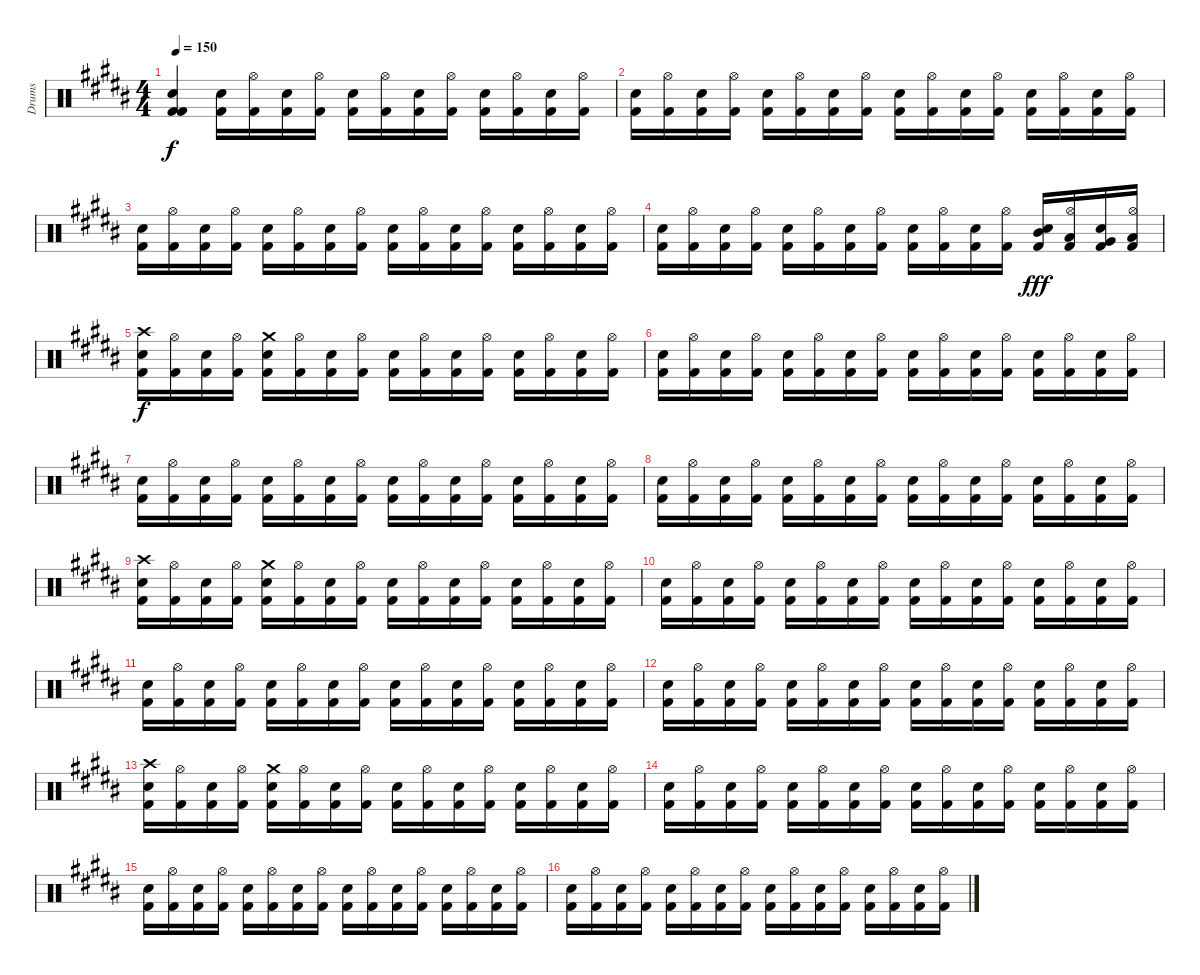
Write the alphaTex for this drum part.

\track ("Drums" "Drums") {instrument percussion}
\staff {score}
\articulation defaults
\ts (4 4)
\tempo 150
\clef neutral
\ks b
("Kick (hit) 2" "Snare (hit) 2" "Kick (hit) 2").4{dy f} ("Snare (hit) 2" "Kick (hit) 2").16 ("Hi-Hat (open)" "Kick (hit) 2").16 ("Snare (hit) 2" "Kick (hit) 2").16 ("Hi-Hat (open)" "Kick (hit) 2").16 ("Snare (hit) 2" "Kick (hit) 2").16 ("Hi-Hat (open)" "Kick (hit) 2").16 ("Snare (hit) 2" "Kick (hit) 2").16 ("Hi-Hat (open)" "Kick (hit) 2").16 ("Snare (hit) 2" "Kick (hit) 2").16 ("Hi-Hat (open)" "Kick (hit) 2").16 ("Snare (hit) 2" "Kick (hit) 2").16 ("Hi-Hat (open)" "Kick (hit) 2").16 |
("Snare (hit) 2" "Kick (hit) 2").16 ("Hi-Hat (open)" "Kick (hit) 2").16 ("Snare (hit) 2" "Kick (hit) 2").16 ("Hi-Hat (open)" "Kick (hit) 2").16 ("Snare (hit) 2" "Kick (hit) 2").16 ("Hi-Hat (open)" "Kick (hit) 2").16 ("Snare (hit) 2" "Kick (hit) 2").16 ("Hi-Hat (open)" "Kick (hit) 2").16 ("Snare (hit) 2" "Kick (hit) 2").16 ("Hi-Hat (open)" "Kick (hit) 2").16 ("Snare (hit) 2" "Kick (hit) 2").16 ("Hi-Hat (open)" "Kick (hit) 2").16 ("Snare (hit) 2" "Kick (hit) 2").16 ("Hi-Hat (open)" "Kick (hit) 2").16 ("Snare (hit) 2" "Kick (hit) 2").16 ("Hi-Hat (open)" "Kick (hit) 2").16 |
("Snare (hit) 2" "Kick (hit) 2").16 ("Hi-Hat (open)" "Kick (hit) 2").16 ("Snare (hit) 2" "Kick (hit) 2").16 ("Hi-Hat (open)" "Kick (hit) 2").16 ("Snare (hit) 2" "Kick (hit) 2").16 ("Hi-Hat (open)" "Kick (hit) 2").16 ("Snare (hit) 2" "Kick (hit) 2").16 ("Hi-Hat (open)" "Kick (hit) 2").16 ("Snare (hit) 2" "Kick (hit) 2").16 ("Hi-Hat (open)" "Kick (hit) 2").16 ("Snare (hit) 2" "Kick (hit) 2").16 ("Hi-Hat (open)" "Kick (hit) 2").16 ("Snare (hit) 2" "Kick (hit) 2").16 ("Hi-Hat (open)" "Kick (hit) 2").16 ("Snare (hit) 2" "Kick (hit) 2").16 ("Hi-Hat (open)" "Kick (hit) 2").16 |
("Snare (hit) 2" "Kick (hit) 2").16 ("Hi-Hat (open)" "Kick (hit) 2").16 ("Snare (hit) 2" "Kick (hit) 2").16 ("Hi-Hat (open)" "Kick (hit) 2").16 ("Snare (hit) 2" "Kick (hit) 2").16 ("Hi-Hat (open)" "Kick (hit) 2").16 ("Snare (hit) 2" "Kick (hit) 2").16 ("Hi-Hat (open)" "Kick (hit) 2").16 ("Snare (hit) 2" "Kick (hit) 2").16 ("Hi-Hat (open)" "Kick (hit) 2").16 ("Snare (hit) 2" "Kick (hit) 2").16 ("Hi-Hat (open)" "Kick (hit) 2").16 ("Mid Tom (hit)" "Snare (hit) 2" "Kick (hit) 2").16{dy fff} ("Hi-Hat (open)" "Low Tom (hit)" "Kick (hit) 2").16 ("Very Low Tom (hit)" "Snare (hit) 2" "Kick (hit) 2").16 ("Hi-Hat (open)" "Low Floor Tom (hit)" "Kick (hit) 2").16 |
("Crash high (hit)" "Snare (hit) 2" "Kick (hit) 2").16{dy f} ("Hi-Hat (open)" "Kick (hit) 2").16 ("Snare (hit) 2" "Kick (hit) 2").16 ("Hi-Hat (open)" "Kick (hit) 2").16 ("Crash medium (hit)" "Snare (hit) 2" "Kick (hit) 2").16 ("Hi-Hat (open)" "Kick (hit) 2").16 ("Snare (hit) 2" "Kick (hit) 2").16 ("Hi-Hat (open)" "Kick (hit) 2").16 ("Snare (hit) 2" "Kick (hit) 2").16 ("Hi-Hat (open)" "Kick (hit) 2").16 ("Snare (hit) 2" "Kick (hit) 2").16 ("Hi-Hat (open)" "Kick (hit) 2").16 ("Snare (hit) 2" "Kick (hit) 2").16 ("Hi-Hat (open)" "Kick (hit) 2").16 ("Snare (hit) 2" "Kick (hit) 2").16 ("Hi-Hat (open)" "Kick (hit) 2").16 |
("Snare (hit) 2" "Kick (hit) 2").16 ("Hi-Hat (open)" "Kick (hit) 2").16 ("Snare (hit) 2" "Kick (hit) 2").16 ("Hi-Hat (open)" "Kick (hit) 2").16 ("Snare (hit) 2" "Kick (hit) 2").16 ("Hi-Hat (open)" "Kick (hit) 2").16 ("Snare (hit) 2" "Kick (hit) 2").16 ("Hi-Hat (open)" "Kick (hit) 2").16 ("Snare (hit) 2" "Kick (hit) 2").16 ("Hi-Hat (open)" "Kick (hit) 2").16 ("Snare (hit) 2" "Kick (hit) 2").16 ("Hi-Hat (open)" "Kick (hit) 2").16 ("Snare (hit) 2" "Kick (hit) 2").16 ("Hi-Hat (open)" "Kick (hit) 2").16 ("Snare (hit) 2" "Kick (hit) 2").16 ("Hi-Hat (open)" "Kick (hit) 2").16 |
("Snare (hit) 2" "Kick (hit) 2").16 ("Hi-Hat (open)" "Kick (hit) 2").16 ("Snare (hit) 2" "Kick (hit) 2").16 ("Hi-Hat (open)" "Kick (hit) 2").16 ("Snare (hit) 2" "Kick (hit) 2").16 ("Hi-Hat (open)" "Kick (hit) 2").16 ("Snare (hit) 2" "Kick (hit) 2").16 ("Hi-Hat (open)" "Kick (hit) 2").16 ("Snare (hit) 2" "Kick (hit) 2").16 ("Hi-Hat (open)" "Kick (hit) 2").16 ("Snare (hit) 2" "Kick (hit) 2").16 ("Hi-Hat (open)" "Kick (hit) 2").16 ("Snare (hit) 2" "Kick (hit) 2").16 ("Hi-Hat (open)" "Kick (hit) 2").16 ("Snare (hit) 2" "Kick (hit) 2").16 ("Hi-Hat (open)" "Kick (hit) 2").16 |
("Snare (hit) 2" "Kick (hit) 2").16 ("Hi-Hat (open)" "Kick (hit) 2").16 ("Snare (hit) 2" "Kick (hit) 2").16 ("Hi-Hat (open)" "Kick (hit) 2").16 ("Snare (hit) 2" "Kick (hit) 2").16 ("Hi-Hat (open)" "Kick (hit) 2").16 ("Snare (hit) 2" "Kick (hit) 2").16 ("Hi-Hat (open)" "Kick (hit) 2").16 ("Snare (hit) 2" "Kick (hit) 2").16 ("Hi-Hat (open)" "Kick (hit) 2").16 ("Snare (hit) 2" "Kick (hit) 2").16 ("Hi-Hat (open)" "Kick (hit) 2").16 ("Snare (hit) 2" "Kick (hit) 2").16 ("Hi-Hat (open)" "Kick (hit) 2").16 ("Snare (hit) 2" "Kick (hit) 2").16 ("Hi-Hat (open)" "Kick (hit) 2").16 |
("Crash high (hit)" "Snare (hit) 2" "Kick (hit) 2").16 ("Hi-Hat (open)" "Kick (hit) 2").16 ("Snare (hit) 2" "Kick (hit) 2").16 ("Hi-Hat (open)" "Kick (hit) 2").16 ("Crash medium (hit)" "Snare (hit) 2" "Kick (hit) 2").16 ("Hi-Hat (open)" "Kick (hit) 2").16 ("Snare (hit) 2" "Kick (hit) 2").16 ("Hi-Hat (open)" "Kick (hit) 2").16 ("Snare (hit) 2" "Kick (hit) 2").16 ("Hi-Hat (open)" "Kick (hit) 2").16 ("Snare (hit) 2" "Kick (hit) 2").16 ("Hi-Hat (open)" "Kick (hit) 2").16 ("Snare (hit) 2" "Kick (hit) 2").16 ("Hi-Hat (open)" "Kick (hit) 2").16 ("Snare (hit) 2" "Kick (hit) 2").16 ("Hi-Hat (open)" "Kick (hit) 2").16 |
("Snare (hit) 2" "Kick (hit) 2").16 ("Hi-Hat (open)" "Kick (hit) 2").16 ("Snare (hit) 2" "Kick (hit) 2").16 ("Hi-Hat (open)" "Kick (hit) 2").16 ("Snare (hit) 2" "Kick (hit) 2").16 ("Hi-Hat (open)" "Kick (hit) 2").16 ("Snare (hit) 2" "Kick (hit) 2").16 ("Hi-Hat (open)" "Kick (hit) 2").16 ("Snare (hit) 2" "Kick (hit) 2").16 ("Hi-Hat (open)" "Kick (hit) 2").16 ("Snare (hit) 2" "Kick (hit) 2").16 ("Hi-Hat (open)" "Kick (hit) 2").16 ("Snare (hit) 2" "Kick (hit) 2").16 ("Hi-Hat (open)" "Kick (hit) 2").16 ("Snare (hit) 2" "Kick (hit) 2").16 ("Hi-Hat (open)" "Kick (hit) 2").16 |
("Snare (hit) 2" "Kick (hit) 2").16 ("Hi-Hat (open)" "Kick (hit) 2").16 ("Snare (hit) 2" "Kick (hit) 2").16 ("Hi-Hat (open)" "Kick (hit) 2").16 ("Snare (hit) 2" "Kick (hit) 2").16 ("Hi-Hat (open)" "Kick (hit) 2").16 ("Snare (hit) 2" "Kick (hit) 2").16 ("Hi-Hat (open)" "Kick (hit) 2").16 ("Snare (hit) 2" "Kick (hit) 2").16 ("Hi-Hat (open)" "Kick (hit) 2").16 ("Snare (hit) 2" "Kick (hit) 2").16 ("Hi-Hat (open)" "Kick (hit) 2").16 ("Snare (hit) 2" "Kick (hit) 2").16 ("Hi-Hat (open)" "Kick (hit) 2").16 ("Snare (hit) 2" "Kick (hit) 2").16 ("Hi-Hat (open)" "Kick (hit) 2").16 |
("Snare (hit) 2" "Kick (hit) 2").16 ("Hi-Hat (open)" "Kick (hit) 2").16 ("Snare (hit) 2" "Kick (hit) 2").16 ("Hi-Hat (open)" "Kick (hit) 2").16 ("Snare (hit) 2" "Kick (hit) 2").16 ("Hi-Hat (open)" "Kick (hit) 2").16 ("Snare (hit) 2" "Kick (hit) 2").16 ("Hi-Hat (open)" "Kick (hit) 2").16 ("Snare (hit) 2" "Kick (hit) 2").16 ("Hi-Hat (open)" "Kick (hit) 2").16 ("Snare (hit) 2" "Kick (hit) 2").16 ("Hi-Hat (open)" "Kick (hit) 2").16 ("Snare (hit) 2" "Kick (hit) 2").16 ("Hi-Hat (open)" "Kick (hit) 2").16 ("Snare (hit) 2" "Kick (hit) 2").16 ("Hi-Hat (open)" "Kick (hit) 2").16 |
("Crash high (hit)" "Snare (hit) 2" "Kick (hit) 2").16 ("Hi-Hat (open)" "Kick (hit) 2").16 ("Snare (hit) 2" "Kick (hit) 2").16 ("Hi-Hat (open)" "Kick (hit) 2").16 ("Crash medium (hit)" "Snare (hit) 2" "Kick (hit) 2").16 ("Hi-Hat (open)" "Kick (hit) 2").16 ("Snare (hit) 2" "Kick (hit) 2").16 ("Hi-Hat (open)" "Kick (hit) 2").16 ("Snare (hit) 2" "Kick (hit) 2").16 ("Hi-Hat (open)" "Kick (hit) 2").16 ("Snare (hit) 2" "Kick (hit) 2").16 ("Hi-Hat (open)" "Kick (hit) 2").16 ("Snare (hit) 2" "Kick (hit) 2").16 ("Hi-Hat (open)" "Kick (hit) 2").16 ("Snare (hit) 2" "Kick (hit) 2").16 ("Hi-Hat (open)" "Kick (hit) 2").16 |
("Snare (hit) 2" "Kick (hit) 2").16 ("Hi-Hat (open)" "Kick (hit) 2").16 ("Snare (hit) 2" "Kick (hit) 2").16 ("Hi-Hat (open)" "Kick (hit) 2").16 ("Snare (hit) 2" "Kick (hit) 2").16 ("Hi-Hat (open)" "Kick (hit) 2").16 ("Snare (hit) 2" "Kick (hit) 2").16 ("Hi-Hat (open)" "Kick (hit) 2").16 ("Snare (hit) 2" "Kick (hit) 2").16 ("Hi-Hat (open)" "Kick (hit) 2").16 ("Snare (hit) 2" "Kick (hit) 2").16 ("Hi-Hat (open)" "Kick (hit) 2").16 ("Snare (hit) 2" "Kick (hit) 2").16 ("Hi-Hat (open)" "Kick (hit) 2").16 ("Snare (hit) 2" "Kick (hit) 2").16 ("Hi-Hat (open)" "Kick (hit) 2").16 |
("Snare (hit) 2" "Kick (hit) 2").16 ("Hi-Hat (open)" "Kick (hit) 2").16 ("Snare (hit) 2" "Kick (hit) 2").16 ("Hi-Hat (open)" "Kick (hit) 2").16 ("Snare (hit) 2" "Kick (hit) 2").16 ("Hi-Hat (open)" "Kick (hit) 2").16 ("Snare (hit) 2" "Kick (hit) 2").16 ("Hi-Hat (open)" "Kick (hit) 2").16 ("Snare (hit) 2" "Kick (hit) 2").16 ("Hi-Hat (open)" "Kick (hit) 2").16 ("Snare (hit) 2" "Kick (hit) 2").16 ("Hi-Hat (open)" "Kick (hit) 2").16 ("Snare (hit) 2" "Kick (hit) 2").16 ("Hi-Hat (open)" "Kick (hit) 2").16 ("Snare (hit) 2" "Kick (hit) 2").16 ("Hi-Hat (open)" "Kick (hit) 2").16 |
("Snare (hit) 2" "Kick (hit) 2").16 ("Hi-Hat (open)" "Kick (hit) 2").16 ("Snare (hit) 2" "Kick (hit) 2").16 ("Hi-Hat (open)" "Kick (hit) 2").16 ("Snare (hit) 2" "Kick (hit) 2").16 ("Hi-Hat (open)" "Kick (hit) 2").16 ("Snare (hit) 2" "Kick (hit) 2").16 ("Hi-Hat (open)" "Kick (hit) 2").16 ("Snare (hit) 2" "Kick (hit) 2").16 ("Hi-Hat (open)" "Kick (hit) 2").16 ("Snare (hit) 2" "Kick (hit) 2").16 ("Hi-Hat (open)" "Kick (hit) 2").16 ("Snare (hit) 2" "Kick (hit) 2").16 ("Hi-Hat (open)" "Kick (hit) 2").16 ("Snare (hit) 2" "Kick (hit) 2").16 ("Hi-Hat (open)" "Kick (hit) 2").16
